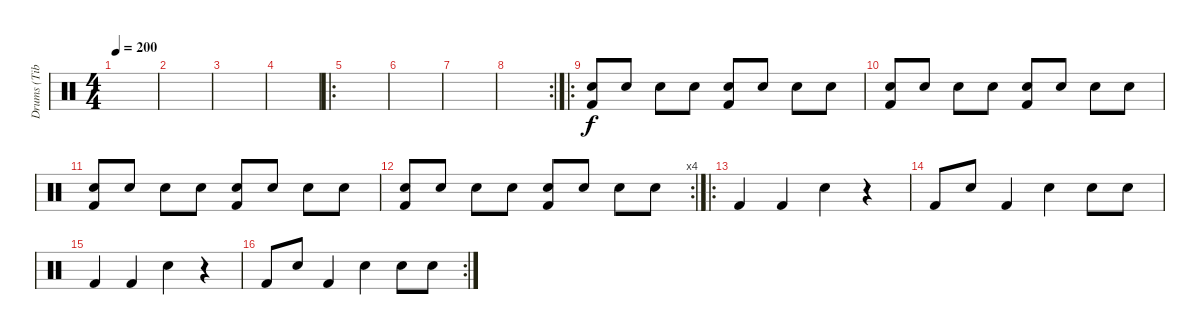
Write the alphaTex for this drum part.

\track ("Drums (Tibcsi Kiss)" "Drums (Tib") {instrument percussion}
\staff {score}
\articulation defaults
\ts (4 4)
\tempo 200
\clef neutral
\ks c
|
|
|
|
\ro
|
|
|
\rc 2
|
\ro
("Electric Snare (hit)" "Kick (hit) 2").8 "Electric Snare (hit)".8 "Electric Snare (hit)".8 "Electric Snare (hit)".8 ("Electric Snare (hit)" "Kick (hit) 2").8 "Electric Snare (hit)".8 "Electric Snare (hit)".8 "Electric Snare (hit)".8 |
("Electric Snare (hit)" "Kick (hit) 2").8 "Electric Snare (hit)".8 "Electric Snare (hit)".8 "Electric Snare (hit)".8 ("Electric Snare (hit)" "Kick (hit) 2").8 "Electric Snare (hit)".8 "Electric Snare (hit)".8 "Electric Snare (hit)".8 |
("Electric Snare (hit)" "Kick (hit) 2").8 "Electric Snare (hit)".8 "Electric Snare (hit)".8 "Electric Snare (hit)".8 ("Electric Snare (hit)" "Kick (hit) 2").8 "Electric Snare (hit)".8 "Electric Snare (hit)".8 "Electric Snare (hit)".8 |
\rc 4
("Electric Snare (hit)" "Kick (hit) 2").8 "Electric Snare (hit)".8 "Electric Snare (hit)".8 "Electric Snare (hit)".8 ("Electric Snare (hit)" "Kick (hit) 2").8 "Electric Snare (hit)".8 "Electric Snare (hit)".8 "Electric Snare (hit)".8 |
\ro "Kick (hit) 2".4 "Kick (hit) 2".4 "Snare (hit) 2".4
r.4 |
"Kick (hit) 2".8 "Snare (hit) 2".8 "Kick (hit) 2".4 "Snare (hit) 2".4 "Snare (hit) 2".8 "Snare (hit) 2".8 |
"Kick (hit) 2".4 "Kick (hit) 2".4 "Snare (hit) 2".4 r.4 |
\rc 2 "Kick (hit) 2".8 "Snare (hit) 2".8 "Kick (hit) 2".4 "Snare (hit) 2".4 "Snare (hit) 2".8 "Snare (hit) 2".8
